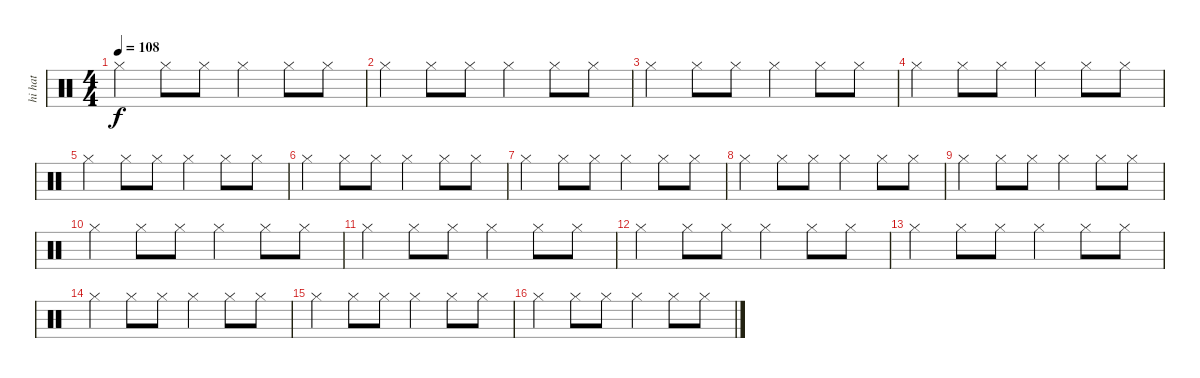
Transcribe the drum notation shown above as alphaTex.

\track ("hi hat              " "hi hat    ") {instrument percussion}
\staff {score}
\articulation defaults
\ts (4 4)
\tempo 108
\clef neutral
\ks c "Hi-Hat (closed)".4{dy f} "Hi-Hat (closed)".8 "Hi-Hat (closed)".8 "Hi-Hat (closed)".4 "Hi-Hat (closed)".8 "Hi-Hat (closed)".8
|
"Hi-Hat (closed)".4 "Hi-Hat (closed)".8 "Hi-Hat (closed)".8 "Hi-Hat (closed)".4 "Hi-Hat (closed)".8 "Hi-Hat (closed)".8 |
"Hi-Hat (closed)".4 "Hi-Hat (closed)".8 "Hi-Hat (closed)".8 "Hi-Hat (closed)".4 "Hi-Hat (closed)".8 "Hi-Hat (closed)".8 |
"Hi-Hat (closed)".4 "Hi-Hat (closed)".8 "Hi-Hat (closed)".8 "Hi-Hat (closed)".4 "Hi-Hat (closed)".8 "Hi-Hat (closed)".8 |
"Hi-Hat (closed)".4 "Hi-Hat (closed)".8 "Hi-Hat (closed)".8 "Hi-Hat (closed)".4 "Hi-Hat (closed)".8 "Hi-Hat (closed)".8 |
"Hi-Hat (closed)".4 "Hi-Hat (closed)".8 "Hi-Hat (closed)".8 "Hi-Hat (closed)".4 "Hi-Hat (closed)".8 "Hi-Hat (closed)".8 |
"Hi-Hat (closed)".4 "Hi-Hat (closed)".8 "Hi-Hat (closed)".8 "Hi-Hat (closed)".4 "Hi-Hat (closed)".8 "Hi-Hat (closed)".8 |
"Hi-Hat (closed)".4 "Hi-Hat (closed)".8 "Hi-Hat (closed)".8 "Hi-Hat (closed)".4 "Hi-Hat (closed)".8 "Hi-Hat (closed)".8 |
"Hi-Hat (closed)".4 "Hi-Hat (closed)".8 "Hi-Hat (closed)".8 "Hi-Hat (closed)".4 "Hi-Hat (closed)".8 "Hi-Hat (closed)".8 |
"Hi-Hat (closed)".4 "Hi-Hat (closed)".8 "Hi-Hat (closed)".8 "Hi-Hat (closed)".4 "Hi-Hat (closed)".8 "Hi-Hat (closed)".8 |
"Hi-Hat (closed)".4 "Hi-Hat (closed)".8 "Hi-Hat (closed)".8 "Hi-Hat (closed)".4 "Hi-Hat (closed)".8 "Hi-Hat (closed)".8 |
"Hi-Hat (closed)".4 "Hi-Hat (closed)".8 "Hi-Hat (closed)".8 "Hi-Hat (closed)".4 "Hi-Hat (closed)".8 "Hi-Hat (closed)".8 |
"Hi-Hat (closed)".4 "Hi-Hat (closed)".8 "Hi-Hat (closed)".8 "Hi-Hat (closed)".4 "Hi-Hat (closed)".8 "Hi-Hat (closed)".8 |
"Hi-Hat (closed)".4 "Hi-Hat (closed)".8 "Hi-Hat (closed)".8 "Hi-Hat (closed)".4 "Hi-Hat (closed)".8 "Hi-Hat (closed)".8 |
"Hi-Hat (closed)".4 "Hi-Hat (closed)".8 "Hi-Hat (closed)".8 "Hi-Hat (closed)".4 "Hi-Hat (closed)".8 "Hi-Hat (closed)".8 |
"Hi-Hat (closed)".4{volume 16} "Hi-Hat (closed)".8{volume 16} "Hi-Hat (closed)".8{volume 16} "Hi-Hat (closed)".4{volume 15} "Hi-Hat (closed)".8{volume 15} "Hi-Hat (closed)".8{volume 15}
